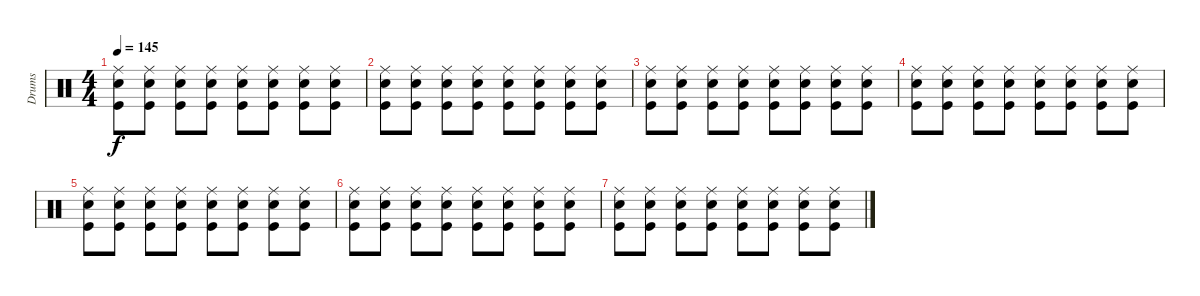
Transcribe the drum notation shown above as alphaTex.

\track ("Drums" "Drums") {instrument percussion}
\staff {score}
\articulation defaults
\ts (4 4)
\tempo 145
\clef neutral
\ks c
("Ride (middle)" "Electric Snare (hit)" "Kick (hit)").8{dy f} ("Ride (middle)" "Electric Snare (hit)" "Kick (hit)").8 ("Ride (middle)" "Electric Snare (hit)" "Kick (hit)").8 ("Ride (middle)" "Electric Snare (hit)" "Kick (hit)").8 ("Ride (middle)" "Electric Snare (hit)" "Kick (hit)").8 ("Ride (middle)" "Electric Snare (hit)" "Kick (hit)").8 ("Ride (middle)" "Electric Snare (hit)" "Kick (hit)").8 ("Ride (middle)" "Electric Snare (hit)" "Kick (hit)").8 |
("Ride (middle)" "Electric Snare (hit)" "Kick (hit)").8 ("Ride (middle)" "Electric Snare (hit)" "Kick (hit)").8 ("Ride (middle)" "Electric Snare (hit)" "Kick (hit)").8 ("Ride (middle)" "Electric Snare (hit)" "Kick (hit)").8 ("Ride (middle)" "Electric Snare (hit)" "Kick (hit)").8 ("Ride (middle)" "Electric Snare (hit)" "Kick (hit)").8 ("Ride (middle)" "Electric Snare (hit)" "Kick (hit)").8 ("Ride (middle)" "Electric Snare (hit)" "Kick (hit)").8 |
("Ride (middle)" "Electric Snare (hit)" "Kick (hit)").8 ("Ride (middle)" "Electric Snare (hit)" "Kick (hit)").8 ("Ride (middle)" "Electric Snare (hit)" "Kick (hit)").8 ("Ride (middle)" "Electric Snare (hit)" "Kick (hit)").8 ("Ride (middle)" "Electric Snare (hit)" "Kick (hit)").8 ("Ride (middle)" "Electric Snare (hit)" "Kick (hit)").8 ("Ride (middle)" "Electric Snare (hit)" "Kick (hit)").8 ("Ride (middle)" "Electric Snare (hit)" "Kick (hit)").8 |
("Ride (middle)" "Electric Snare (hit)" "Kick (hit)").8 ("Ride (middle)" "Electric Snare (hit)" "Kick (hit)").8 ("Ride (middle)" "Electric Snare (hit)" "Kick (hit)").8 ("Ride (middle)" "Electric Snare (hit)" "Kick (hit)").8 ("Ride (middle)" "Electric Snare (hit)" "Kick (hit)").8 ("Ride (middle)" "Electric Snare (hit)" "Kick (hit)").8 ("Ride (middle)" "Electric Snare (hit)" "Kick (hit)").8 ("Ride (middle)" "Electric Snare (hit)" "Kick (hit)").8 |
("Ride (middle)" "Electric Snare (hit)" "Kick (hit)").8 ("Ride (middle)" "Electric Snare (hit)" "Kick (hit)").8 ("Ride (middle)" "Electric Snare (hit)" "Kick (hit)").8 ("Ride (middle)" "Electric Snare (hit)" "Kick (hit)").8 ("Ride (middle)" "Electric Snare (hit)" "Kick (hit)").8 ("Ride (middle)" "Electric Snare (hit)" "Kick (hit)").8 ("Ride (middle)" "Electric Snare (hit)" "Kick (hit)").8 ("Ride (middle)" "Electric Snare (hit)" "Kick (hit)").8 |
("Ride (middle)" "Electric Snare (hit)" "Kick (hit)").8 ("Ride (middle)" "Electric Snare (hit)" "Kick (hit)").8 ("Ride (middle)" "Electric Snare (hit)" "Kick (hit)").8 ("Ride (middle)" "Electric Snare (hit)" "Kick (hit)").8 ("Ride (middle)" "Electric Snare (hit)" "Kick (hit)").8 ("Ride (middle)" "Electric Snare (hit)" "Kick (hit)").8 ("Ride (middle)" "Electric Snare (hit)" "Kick (hit)").8 ("Ride (middle)" "Electric Snare (hit)" "Kick (hit)").8 |
("Ride (middle)" "Electric Snare (hit)" "Kick (hit)").8 ("Ride (middle)" "Electric Snare (hit)" "Kick (hit)").8 ("Ride (middle)" "Electric Snare (hit)" "Kick (hit)").8 ("Ride (middle)" "Electric Snare (hit)" "Kick (hit)").8 ("Ride (middle)" "Electric Snare (hit)" "Kick (hit)").8 ("Ride (middle)" "Electric Snare (hit)" "Kick (hit)").8 ("Ride (middle)" "Electric Snare (hit)" "Kick (hit)").8 ("Ride (middle)" "Electric Snare (hit)" "Kick (hit)").8
